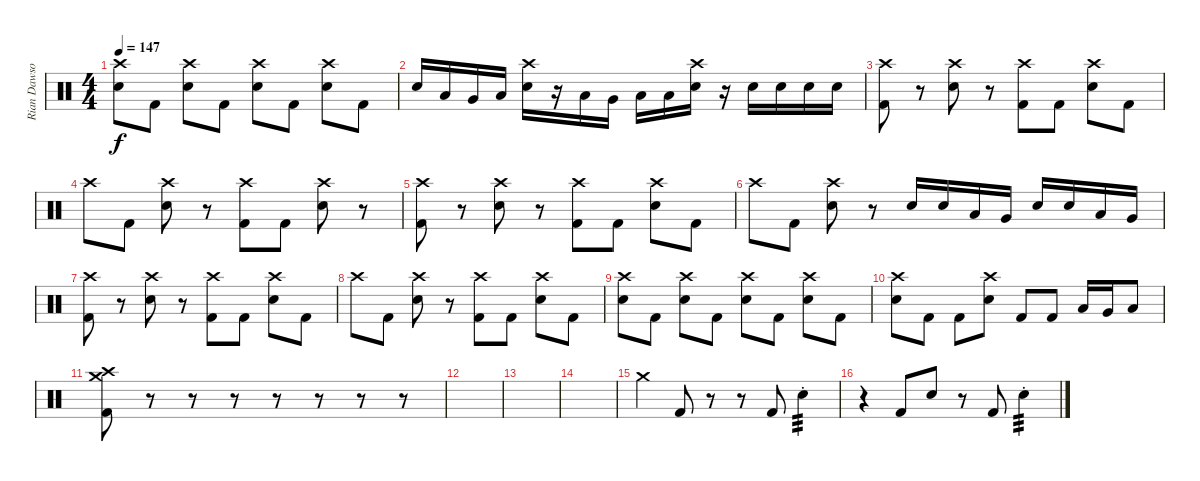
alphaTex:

\track ("Rian Dawson (Drums)" "Rian Dawso") {instrument percussion}
\staff {score}
\articulation defaults
\ts (4 4)
\tempo 147
\clef neutral
\ks c
("Crash high (hit)" "Electric Snare (hit)").8{dy f} "Kick (hit) 2".8 ("Crash high (hit)" "Electric Snare (hit)").8 "Kick (hit) 2".8 ("Crash high (hit)" "Electric Snare (hit)").8 "Kick (hit) 2".8 ("Crash high (hit)" "Electric Snare (hit)").8 "Kick (hit) 2".8 |
"Electric Snare (hit)".16 "Low Tom (hit)".16 "Very Low Tom (hit)".16 "Low Floor Tom (hit)".16 ("Crash high (hit)" "Electric Snare (hit)").16 r.16 "Low Tom (hit)".16 "Very Low Tom (hit)".16 "Low Floor Tom (hit)".16 "Low Floor Tom (hit)".16 ("Crash high (hit)" "Electric Snare (hit)").16 r.16 "Electric Snare (hit)".16 "Electric Snare (hit)".16 "Electric Snare (hit)".16 "Electric Snare (hit)".16 |
("Crash high (hit)" "Kick (hit) 2").8 r.8 ("Crash high (hit)" "Electric Snare (hit)").8 r.8 ("Crash high (hit)" "Kick (hit) 2").8 "Kick (hit) 2".8 ("Crash high (hit)" "Electric Snare (hit)").8 "Kick (hit) 2".8 |
"Crash high (hit)".8 "Kick (hit) 2".8 ("Crash high (hit)" "Electric Snare (hit)").8 r.8 ("Crash high (hit)" "Kick (hit) 2").8 "Kick (hit) 2".8 ("Crash high (hit)" "Electric Snare (hit)").8 r.8 |
("Crash high (hit)" "Kick (hit) 2").8 r.8 ("Crash high (hit)" "Electric Snare (hit)").8 r.8 ("Crash high (hit)" "Kick (hit) 2").8 "Kick (hit) 2".8 ("Crash high (hit)" "Electric Snare (hit)").8 "Kick (hit) 2".8 |
"Crash high (hit)".8 "Kick (hit) 2".8 ("Crash high (hit)" "Electric Snare (hit)").8 r.8 "Electric Snare (hit)".16 "Electric Snare (hit)".16 "Low Tom (hit)".16 "Very Low Tom (hit)".16 "Electric Snare (hit)".16 "Electric Snare (hit)".16 "Low Tom (hit)".16 "Very Low Tom (hit)".16 |
("Crash high (hit)" "Kick (hit) 2").8 r.8 ("Crash high (hit)" "Electric Snare (hit)").8 r.8 ("Crash high (hit)" "Kick (hit) 2").8 "Kick (hit) 2".8 ("Crash high (hit)" "Electric Snare (hit)").8 "Kick (hit) 2".8 |
"Crash high (hit)".8 "Kick (hit) 2".8 ("Crash high (hit)" "Electric Snare (hit)").8 r.8 ("Crash high (hit)" "Kick (hit) 2").8 "Kick (hit) 2".8 ("Crash high (hit)" "Electric Snare (hit)").8 "Kick (hit) 2".8 |
("Crash high (hit)" "Electric Snare (hit)").8 "Kick (hit) 2".8 ("Crash high (hit)" "Electric Snare (hit)").8 "Kick (hit) 2".8 ("Crash high (hit)" "Electric Snare (hit)").8 "Kick (hit) 2".8 ("Crash high (hit)" "Electric Snare (hit)").8 "Kick (hit) 2".8 |
("Crash high (hit)" "Electric Snare (hit)").8 "Kick (hit) 2".8 "Kick (hit) 2".8 ("Crash high (hit)" "Electric Snare (hit)").8 "Kick (hit) 2".8 "Kick (hit) 2".8 "Low Tom (hit)".16 "Very Low Tom (hit)".16 "Low Floor Tom (hit)".8 |
("Crash high (hit)" "Crash medium (hit)" "Kick (hit) 2").8 r.8 r.8 r.8 r.8 r.8 r.8 r.8 |
|
|
|
"Crash medium (hit)".4 "Kick (hit) 2".8 r.8 r.8 "Kick (hit) 2".8 "Electric Snare (hit)"{st}.4{tp 3} |
r.4 "Kick (hit) 2".8 "Electric Snare (hit)".8 r.8 "Kick (hit) 2".8 "Electric Snare (hit)"{st}.4{tp 3}
